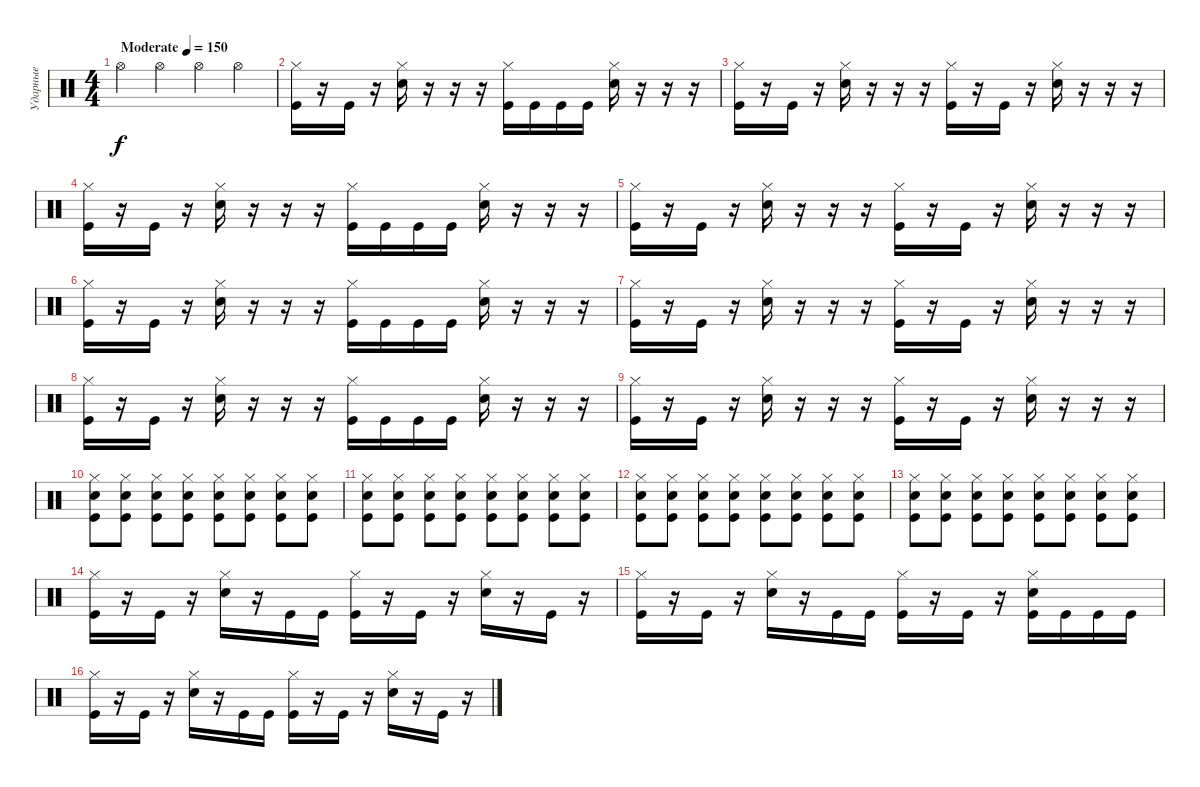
\track ("Ударные" "Ударные") {instrument percussion}
\staff {score}
\articulation defaults
\ts (4 4)
\tempo (150 "Moderate")
\clef neutral
\ks c "Hi-Hat (open)".4{dy f} "Hi-Hat (open)".4 "Hi-Hat (open)".4 "Hi-Hat (open)".4
|
("Hi-Hat (closed)" "Kick (hit)").16 r.16 "Kick (hit)".16 r.16 ("Hi-Hat (closed)" "Electric Snare (hit)").16 r.16 r.16 r.16 ("Hi-Hat (closed)" "Kick (hit)").16 "Kick (hit)".16 "Kick (hit)".16 "Kick (hit)".16 ("Hi-Hat (closed)" "Electric Snare (hit)").16 r.16 r.16 r.16 |
("Hi-Hat (closed)" "Kick (hit)").16 r.16 "Kick (hit)".16 r.16 ("Hi-Hat (closed)" "Electric Snare (hit)").16 r.16 r.16 r.16 ("Hi-Hat (closed)" "Kick (hit)").16 r.16 "Kick (hit)".16 r.16 ("Hi-Hat (closed)" "Electric Snare (hit)").16 r.16 r.16 r.16 |
("Hi-Hat (closed)" "Kick (hit)").16 r.16 "Kick (hit)".16 r.16 ("Hi-Hat (closed)" "Electric Snare (hit)").16 r.16 r.16 r.16 ("Hi-Hat (closed)" "Kick (hit)").16 "Kick (hit)".16 "Kick (hit)".16 "Kick (hit)".16 ("Hi-Hat (closed)" "Electric Snare (hit)").16 r.16 r.16 r.16 |
("Hi-Hat (closed)" "Kick (hit)").16 r.16 "Kick (hit)".16 r.16 ("Hi-Hat (closed)" "Electric Snare (hit)").16 r.16 r.16 r.16 ("Hi-Hat (closed)" "Kick (hit)").16 r.16 "Kick (hit)".16 r.16 ("Hi-Hat (closed)" "Electric Snare (hit)").16 r.16 r.16 r.16 |
("Hi-Hat (closed)" "Kick (hit)").16 r.16 "Kick (hit)".16 r.16 ("Hi-Hat (closed)" "Electric Snare (hit)").16 r.16 r.16 r.16 ("Hi-Hat (closed)" "Kick (hit)").16 "Kick (hit)".16 "Kick (hit)".16 "Kick (hit)".16 ("Hi-Hat (closed)" "Electric Snare (hit)").16 r.16 r.16 r.16 |
("Hi-Hat (closed)" "Kick (hit)").16 r.16 "Kick (hit)".16 r.16 ("Hi-Hat (closed)" "Electric Snare (hit)").16 r.16 r.16 r.16 ("Hi-Hat (closed)" "Kick (hit)").16 r.16 "Kick (hit)".16 r.16 ("Hi-Hat (closed)" "Electric Snare (hit)").16 r.16 r.16 r.16 |
("Hi-Hat (closed)" "Kick (hit)").16 r.16 "Kick (hit)".16 r.16 ("Hi-Hat (closed)" "Electric Snare (hit)").16 r.16 r.16 r.16 ("Hi-Hat (closed)" "Kick (hit)").16 "Kick (hit)".16 "Kick (hit)".16 "Kick (hit)".16 ("Hi-Hat (closed)" "Electric Snare (hit)").16 r.16 r.16 r.16 |
("Hi-Hat (closed)" "Kick (hit)").16 r.16 "Kick (hit)".16 r.16 ("Hi-Hat (closed)" "Electric Snare (hit)").16 r.16 r.16 r.16 ("Hi-Hat (closed)" "Kick (hit)").16 r.16 "Kick (hit)".16 r.16 ("Hi-Hat (closed)" "Electric Snare (hit)").16 r.16 r.16 r.16 |
("Hi-Hat (closed)" "Electric Snare (hit)" "Kick (hit)").8 ("Hi-Hat (closed)" "Electric Snare (hit)" "Kick (hit)").8 ("Hi-Hat (closed)" "Electric Snare (hit)" "Kick (hit)").8 ("Hi-Hat (closed)" "Electric Snare (hit)" "Kick (hit)").8 ("Hi-Hat (closed)" "Electric Snare (hit)" "Kick (hit)").8 ("Hi-Hat (closed)" "Electric Snare (hit)" "Kick (hit)").8 ("Hi-Hat (closed)" "Electric Snare (hit)" "Kick (hit)").8 ("Hi-Hat (closed)" "Electric Snare (hit)" "Kick (hit)").8 |
("Hi-Hat (closed)" "Electric Snare (hit)" "Kick (hit)").8 ("Hi-Hat (closed)" "Electric Snare (hit)" "Kick (hit)").8 ("Hi-Hat (closed)" "Electric Snare (hit)" "Kick (hit)").8 ("Hi-Hat (closed)" "Electric Snare (hit)" "Kick (hit)").8 ("Hi-Hat (closed)" "Electric Snare (hit)" "Kick (hit)").8 ("Hi-Hat (closed)" "Electric Snare (hit)" "Kick (hit)").8 ("Hi-Hat (closed)" "Electric Snare (hit)" "Kick (hit)").8 ("Hi-Hat (closed)" "Electric Snare (hit)" "Kick (hit)").8 |
("Hi-Hat (closed)" "Electric Snare (hit)" "Kick (hit)").8 ("Hi-Hat (closed)" "Electric Snare (hit)" "Kick (hit)").8 ("Hi-Hat (closed)" "Electric Snare (hit)" "Kick (hit)").8 ("Hi-Hat (closed)" "Electric Snare (hit)" "Kick (hit)").8 ("Hi-Hat (closed)" "Electric Snare (hit)" "Kick (hit)").8 ("Hi-Hat (closed)" "Electric Snare (hit)" "Kick (hit)").8 ("Hi-Hat (closed)" "Electric Snare (hit)" "Kick (hit)").8 ("Hi-Hat (closed)" "Electric Snare (hit)" "Kick (hit)").8 |
("Hi-Hat (closed)" "Electric Snare (hit)" "Kick (hit)").8 ("Hi-Hat (closed)" "Electric Snare (hit)" "Kick (hit)").8 ("Hi-Hat (closed)" "Electric Snare (hit)" "Kick (hit)").8 ("Hi-Hat (closed)" "Electric Snare (hit)" "Kick (hit)").8 ("Hi-Hat (closed)" "Electric Snare (hit)" "Kick (hit)").8 ("Hi-Hat (closed)" "Electric Snare (hit)" "Kick (hit)").8 ("Hi-Hat (closed)" "Electric Snare (hit)" "Kick (hit)").8 ("Hi-Hat (closed)" "Electric Snare (hit)" "Kick (hit)").8 |
("Hi-Hat (closed)" "Kick (hit)").16 r.16 "Kick (hit)".16 r.16 ("Hi-Hat (closed)" "Electric Snare (hit)").16 r.16 "Kick (hit)".16 "Kick (hit)".16 ("Hi-Hat (closed)" "Kick (hit)").16 r.16 "Kick (hit)".16 r.16 ("Hi-Hat (closed)" "Electric Snare (hit)").16 r.16 "Kick (hit)".16 r.16 |
("Hi-Hat (closed)" "Kick (hit)").16 r.16 "Kick (hit)".16 r.16 ("Hi-Hat (closed)" "Electric Snare (hit)").16 r.16 "Kick (hit)".16 "Kick (hit)".16 ("Hi-Hat (closed)" "Kick (hit)").16 r.16 "Kick (hit)".16 r.16 ("Hi-Hat (closed)" "Electric Snare (hit)" "Kick (hit)").16 "Kick (hit)".16 "Kick (hit)".16 "Kick (hit)".16 |
("Hi-Hat (closed)" "Kick (hit)").16 r.16 "Kick (hit)".16 r.16 ("Hi-Hat (closed)" "Electric Snare (hit)").16 r.16 "Kick (hit)".16 "Kick (hit)".16 ("Hi-Hat (closed)" "Kick (hit)").16 r.16 "Kick (hit)".16 r.16 ("Hi-Hat (closed)" "Electric Snare (hit)").16 r.16 "Kick (hit)".16 r.16
